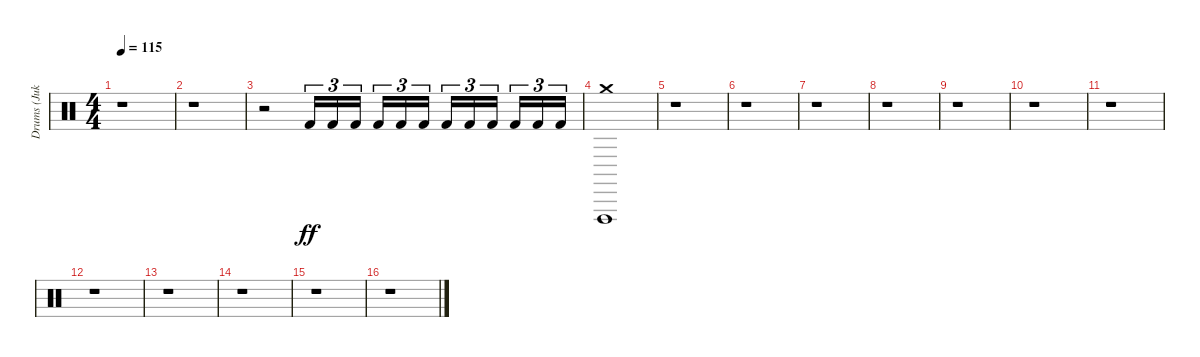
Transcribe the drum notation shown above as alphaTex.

\track ("Drums (Jukka)" "Drums (Juk") {instrument percussion}
\staff {score}
\articulation defaults
\ts (4 4)
\tempo 115
\clef neutral
\ks c
r.1{dy ff} |
r.1 |
r.2 "Kick (hit) 2".16{tu (3 2)} "Kick (hit) 2".16{tu (3 2)} "Kick (hit) 2".16{tu (3 2)} "Kick (hit) 2".16{tu (3 2)} "Kick (hit) 2".16{tu (3 2)} "Kick (hit) 2".16{tu (3 2)} "Kick (hit) 2".16{tu (3 2)} "Kick (hit) 2".16{tu (3 2)} "Kick (hit) 2".16{tu (3 2)} "Kick (hit) 2".16{tu (3 2)} "Kick (hit) 2".16{tu (3 2)} "Kick (hit) 2".16{tu (3 2)} |
("Crash medium (hit)" "Vibraslap (hit)").1 |
r.1 |
r.1 |
r.1 |
r.1 |
r.1 |
r.1 |
r.1 |
r.1 |
r.1 |
r.1 |
r.1 |
r.1
